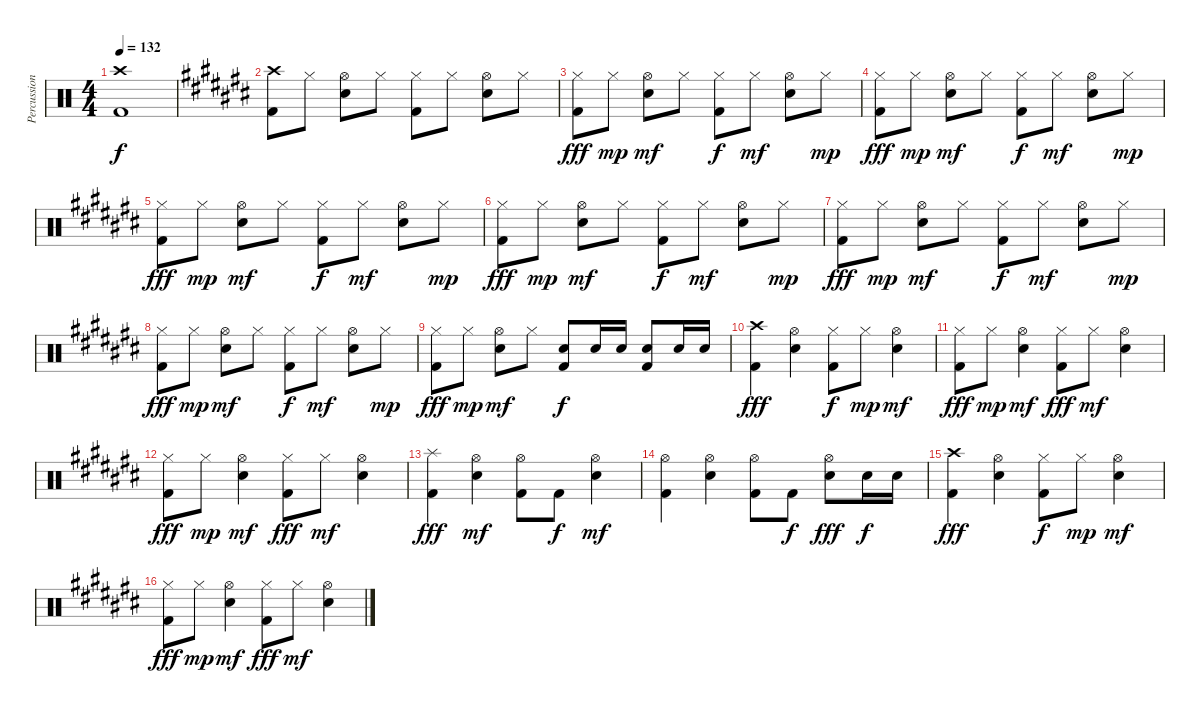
\track ("Percussion" "Percussion") {instrument percussion}
\staff {score}
\articulation defaults
\ts (4 4)
\tempo 132
\clef neutral
\ks c
("Crash high (hit)" "Kick (hit) 2").1{dy f} |
\ks c#
("Crash high (hit)" "Kick (hit) 2").8 "Hi-Hat (closed)".8 ("Hi-Hat (open)" "Snare (hit) 2").8 "Hi-Hat (closed)".8 ("Hi-Hat (closed)" "Kick (hit) 2").8 "Hi-Hat (closed)".8 ("Hi-Hat (open)" "Snare (hit) 2").8 "Hi-Hat (closed)".8 |
("Hi-Hat (closed)" "Kick (hit) 2").8{dy fff} "Hi-Hat (closed)".8{dy mp} ("Hi-Hat (open)" "Snare (hit) 2").8{dy mf} "Hi-Hat (closed)".8 ("Hi-Hat (closed)" "Kick (hit) 2").8{dy f} "Hi-Hat (closed)".8{dy mf} ("Hi-Hat (open)" "Snare (hit) 2").8 "Hi-Hat (closed)".8{dy mp} |
("Hi-Hat (closed)" "Kick (hit) 2").8{dy fff} "Hi-Hat (closed)".8{dy mp} ("Hi-Hat (open)" "Snare (hit) 2").8{dy mf} "Hi-Hat (closed)".8 ("Hi-Hat (closed)" "Kick (hit) 2").8{dy f} "Hi-Hat (closed)".8{dy mf} ("Hi-Hat (open)" "Snare (hit) 2").8 "Hi-Hat (closed)".8{dy mp} |
("Hi-Hat (closed)" "Kick (hit) 2").8{dy fff} "Hi-Hat (closed)".8{dy mp} ("Hi-Hat (open)" "Snare (hit) 2").8{dy mf} "Hi-Hat (closed)".8 ("Hi-Hat (closed)" "Kick (hit) 2").8{dy f} "Hi-Hat (closed)".8{dy mf} ("Hi-Hat (open)" "Snare (hit) 2").8 "Hi-Hat (closed)".8{dy mp} |
("Hi-Hat (closed)" "Kick (hit) 2").8{dy fff} "Hi-Hat (closed)".8{dy mp} ("Hi-Hat (open)" "Snare (hit) 2").8{dy mf} "Hi-Hat (closed)".8 ("Hi-Hat (closed)" "Kick (hit) 2").8{dy f} "Hi-Hat (closed)".8{dy mf} ("Hi-Hat (open)" "Snare (hit) 2").8 "Hi-Hat (closed)".8{dy mp} |
("Hi-Hat (closed)" "Kick (hit) 2").8{dy fff} "Hi-Hat (closed)".8{dy mp} ("Hi-Hat (open)" "Snare (hit) 2").8{dy mf} "Hi-Hat (closed)".8 ("Hi-Hat (closed)" "Kick (hit) 2").8{dy f} "Hi-Hat (closed)".8{dy mf} ("Hi-Hat (open)" "Snare (hit) 2").8 "Hi-Hat (closed)".8{dy mp} |
("Hi-Hat (closed)" "Kick (hit) 2").8{dy fff} "Hi-Hat (closed)".8{dy mp} ("Hi-Hat (open)" "Snare (hit) 2").8{dy mf} "Hi-Hat (closed)".8 ("Hi-Hat (closed)" "Kick (hit) 2").8{dy f} "Hi-Hat (closed)".8{dy mf} ("Hi-Hat (open)" "Snare (hit) 2").8 "Hi-Hat (closed)".8{dy mp} |
("Hi-Hat (closed)" "Kick (hit) 2").8{dy fff} "Hi-Hat (closed)".8{dy mp} ("Hi-Hat (open)" "Snare (hit) 2").8{dy mf} "Hi-Hat (closed)".8 ("Snare (hit) 2" "Kick (hit) 2").8{dy f} "Snare (hit) 2".16 "Snare (hit) 2".16 ("Snare (hit) 2" "Kick (hit) 2").8 "Snare (hit) 2".16 "Snare (hit) 2".16 |
("Crash high (hit)" "Kick (hit) 2").4{dy fff} ("Hi-Hat (open)" "Snare (hit) 2").4 ("Hi-Hat (closed)" "Kick (hit) 2").8{dy f} "Hi-Hat (closed)".8{dy mp} ("Hi-Hat (open)" "Snare (hit) 2").4{dy mf} |
("Hi-Hat (closed)" "Kick (hit) 2").8{dy fff} "Hi-Hat (closed)".8{dy mp} ("Hi-Hat (open)" "Snare (hit) 2").4{dy mf} ("Hi-Hat (closed)" "Kick (hit) 2").8{dy fff} "Hi-Hat (closed)".8{dy mf} ("Hi-Hat (open)" "Snare (hit) 2").4 |
("Hi-Hat (closed)" "Kick (hit) 2").8{dy fff} "Hi-Hat (closed)".8{dy mp} ("Hi-Hat (open)" "Snare (hit) 2").4{dy mf} ("Hi-Hat (closed)" "Kick (hit) 2").8{dy fff} "Hi-Hat (closed)".8{dy mf} ("Hi-Hat (open)" "Snare (hit) 2").4 |
("Splash (hit)" "Kick (hit) 2").4{dy fff} ("Hi-Hat (open)" "Snare (hit) 2").4{dy mf} ("Hi-Hat (open)" "Kick (hit) 2").8 "Kick (hit) 2".8{dy f} ("Hi-Hat (open)" "Snare (hit) 2").4{dy mf} |
("Hi-Hat (open)" "Kick (hit) 2").4 ("Hi-Hat (open)" "Snare (hit) 2").4 ("Hi-Hat (open)" "Kick (hit) 2").8 "Kick (hit) 2".8{dy f} ("Hi-Hat (open)" "Snare (hit) 2").8{dy fff} "Snare (hit) 2".16{dy f} "Snare (hit) 2".16 |
("Crash high (hit)" "Kick (hit) 2").4{dy fff} ("Hi-Hat (open)" "Snare (hit) 2").4 ("Hi-Hat (closed)" "Kick (hit) 2").8{dy f} "Hi-Hat (closed)".8{dy mp} ("Hi-Hat (open)" "Snare (hit) 2").4{dy mf} |
("Hi-Hat (closed)" "Kick (hit) 2").8{dy fff} "Hi-Hat (closed)".8{dy mp} ("Hi-Hat (open)" "Snare (hit) 2").4{dy mf} ("Hi-Hat (closed)" "Kick (hit) 2").8{dy fff} "Hi-Hat (closed)".8{dy mf} ("Hi-Hat (open)" "Snare (hit) 2").4
